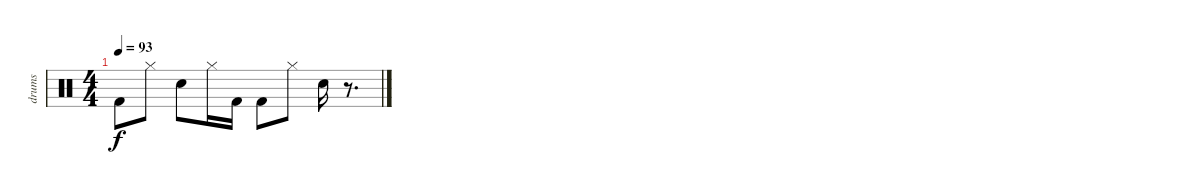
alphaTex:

\track ("drums" "drums") {instrument percussion}
\staff {score}
\articulation defaults
\ts (4 4)
\tempo 93
\clef neutral
\ks c "Kick (hit) 2".8{dy f} "Hi-Hat (closed)".8 "Snare (hit) 2".8 "Hi-Hat (closed)".16 "Kick (hit) 2".16 "Kick (hit) 2".8 "Hi-Hat (closed)".8 "Snare (hit) 2".16
r.8{d}
